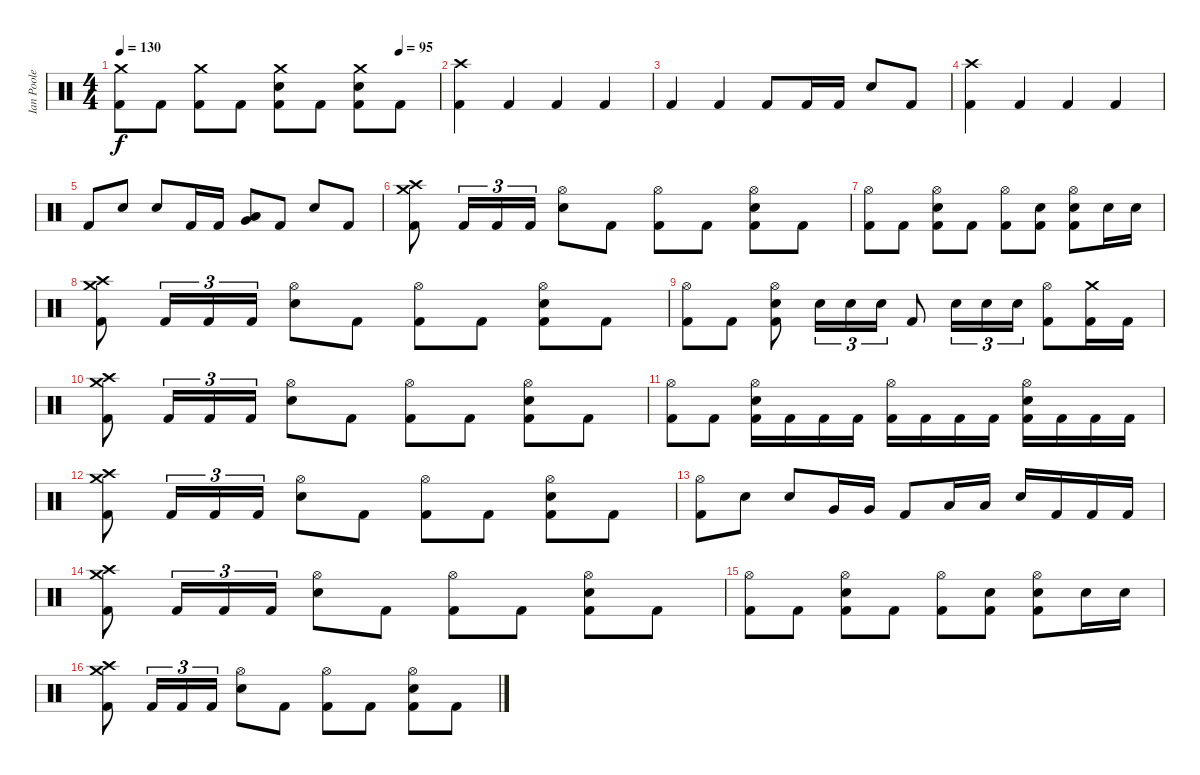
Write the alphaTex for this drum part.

\track ("Ian Poole" "Ian Poole") {instrument percussion}
\staff {score}
\articulation defaults
\ts (4 4)
\tempo 130
\tempo (95 0.875)
\clef neutral
\ks c
("Crash medium (hit)" "Kick (hit) 2").8{dy f} "Kick (hit) 2".8 ("Crash medium (hit)" "Kick (hit) 2").8 "Kick (hit) 2".8 ("Crash medium (hit)" "Electric Snare (hit)" "Kick (hit) 2").8 "Kick (hit) 2".8 ("Crash medium (hit)" "Electric Snare (hit)" "Kick (hit) 2").8 "Kick (hit) 2".8 |
("Crash high (hit)" "Kick (hit) 2").4 "Kick (hit) 2".4 "Kick (hit) 2".4 "Kick (hit) 2".4 |
"Kick (hit) 2".4 "Kick (hit) 2".4 "Kick (hit) 2".8 "Kick (hit) 2".16 "Kick (hit) 2".16 "Electric Snare (hit)".8 "Kick (hit) 2".8 |
("Crash high (hit)" "Kick (hit) 2").4 "Kick (hit) 2".4 "Kick (hit) 2".4 "Kick (hit) 2".4 |
"Kick (hit) 2".8 "Electric Snare (hit)".8 "Electric Snare (hit)".8 "Kick (hit) 2".16 "Kick (hit) 2".16 ("Low Tom (hit)" "Very Low Tom (hit)").8 "Kick (hit) 2".8 "Electric Snare (hit)".8 "Kick (hit) 2".8 |
("Crash medium (hit)" "Crash high (hit)" "Kick (hit) 2").8 "Kick (hit) 2".16{tu (3 2)} "Kick (hit) 2".16{tu (3 2)} "Kick (hit) 2".16{tu (3 2)} ("Hi-Hat (open)" "Electric Snare (hit)").8 "Kick (hit) 2".8 ("Hi-Hat (open)" "Kick (hit) 2").8 "Kick (hit) 2".8 ("Hi-Hat (open)" "Electric Snare (hit)" "Kick (hit) 2").8 "Kick (hit) 2".8 |
("Hi-Hat (open)" "Kick (hit) 2").8 "Kick (hit) 2".8 ("Hi-Hat (open)" "Electric Snare (hit)" "Kick (hit) 2").8 "Kick (hit) 2".8 ("Hi-Hat (open)" "Kick (hit) 2").8 ("Electric Snare (hit)" "Kick (hit) 2").8 ("Hi-Hat (open)" "Electric Snare (hit)" "Kick (hit) 2").8 "Electric Snare (hit)".16 "Electric Snare (hit)".16 |
("Crash medium (hit)" "Crash high (hit)" "Kick (hit) 2").8 "Kick (hit) 2".16{tu (3 2)} "Kick (hit) 2".16{tu (3 2)} "Kick (hit) 2".16{tu (3 2)} ("Hi-Hat (open)" "Electric Snare (hit)").8 "Kick (hit) 2".8 ("Hi-Hat (open)" "Kick (hit) 2").8 "Kick (hit) 2".8 ("Hi-Hat (open)" "Electric Snare (hit)" "Kick (hit) 2").8 "Kick (hit) 2".8 |
("Hi-Hat (open)" "Kick (hit) 2").8 "Kick (hit) 2".8 ("Hi-Hat (open)" "Electric Snare (hit)" "Kick (hit) 2").8 "Electric Snare (hit)".16{tu (3 2)} "Electric Snare (hit)".16{tu (3 2)} "Electric Snare (hit)".16{tu (3 2)} "Kick (hit) 2".8 "Electric Snare (hit)".16{tu (3 2)} "Electric Snare (hit)".16{tu (3 2)} "Electric Snare (hit)".16{tu (3 2)} ("Hi-Hat (open)" "Kick (hit) 2").8 ("Crash medium (hit)" "Kick (hit) 2").16 "Kick (hit) 2".16 |
("Crash medium (hit)" "Crash high (hit)" "Kick (hit) 2").8 "Kick (hit) 2".16{tu (3 2)} "Kick (hit) 2".16{tu (3 2)} "Kick (hit) 2".16{tu (3 2)} ("Hi-Hat (open)" "Electric Snare (hit)").8 "Kick (hit) 2".8 ("Hi-Hat (open)" "Kick (hit) 2").8 "Kick (hit) 2".8 ("Hi-Hat (open)" "Electric Snare (hit)" "Kick (hit) 2").8 "Kick (hit) 2".8 |
("Hi-Hat (open)" "Kick (hit) 2").8 "Kick (hit) 2".8 ("Hi-Hat (open)" "Electric Snare (hit)" "Kick (hit) 2").16 "Kick (hit) 2".16 "Kick (hit) 2".16 "Kick (hit) 2".16 ("Hi-Hat (open)" "Kick (hit) 2").16 "Kick (hit) 2".16 "Kick (hit) 2".16 "Kick (hit) 2".16 ("Hi-Hat (open)" "Electric Snare (hit)" "Kick (hit) 2").16 "Kick (hit) 2".16 "Kick (hit) 2".16 "Kick (hit) 2".16 |
("Crash medium (hit)" "Crash high (hit)" "Kick (hit) 2").8 "Kick (hit) 2".16{tu (3 2)} "Kick (hit) 2".16{tu (3 2)} "Kick (hit) 2".16{tu (3 2)} ("Hi-Hat (open)" "Electric Snare (hit)").8 "Kick (hit) 2".8 ("Hi-Hat (open)" "Kick (hit) 2").8 "Kick (hit) 2".8 ("Hi-Hat (open)" "Electric Snare (hit)" "Kick (hit) 2").8 "Kick (hit) 2".8 |
("Hi-Hat (open)" "Kick (hit) 2").8 "Electric Snare (hit)".8 "Electric Snare (hit)".8 "Very Low Tom (hit)".16 "Very Low Tom (hit)".16 "Kick (hit) 2".8 "Low Floor Tom (hit)".16 "Low Floor Tom (hit)".16 "Electric Snare (hit)".16 "Kick (hit) 2".16 "Kick (hit) 2".16 "Kick (hit) 2".16 |
("Crash medium (hit)" "Crash high (hit)" "Kick (hit) 2").8 "Kick (hit) 2".16{tu (3 2)} "Kick (hit) 2".16{tu (3 2)} "Kick (hit) 2".16{tu (3 2)} ("Hi-Hat (open)" "Electric Snare (hit)").8 "Kick (hit) 2".8 ("Hi-Hat (open)" "Kick (hit) 2").8 "Kick (hit) 2".8 ("Hi-Hat (open)" "Electric Snare (hit)" "Kick (hit) 2").8 "Kick (hit) 2".8 |
("Hi-Hat (open)" "Kick (hit) 2").8 "Kick (hit) 2".8 ("Hi-Hat (open)" "Electric Snare (hit)" "Kick (hit) 2").8 "Kick (hit) 2".8 ("Hi-Hat (open)" "Kick (hit) 2").8 ("Electric Snare (hit)" "Kick (hit) 2").8 ("Hi-Hat (open)" "Electric Snare (hit)" "Kick (hit) 2").8 "Electric Snare (hit)".16 "Electric Snare (hit)".16 |
("Crash medium (hit)" "Crash high (hit)" "Kick (hit) 2").8 "Kick (hit) 2".16{tu (3 2)} "Kick (hit) 2".16{tu (3 2)} "Kick (hit) 2".16{tu (3 2)} ("Hi-Hat (open)" "Electric Snare (hit)").8 "Kick (hit) 2".8 ("Hi-Hat (open)" "Kick (hit) 2").8 "Kick (hit) 2".8 ("Hi-Hat (open)" "Electric Snare (hit)" "Kick (hit) 2").8 "Kick (hit) 2".8
